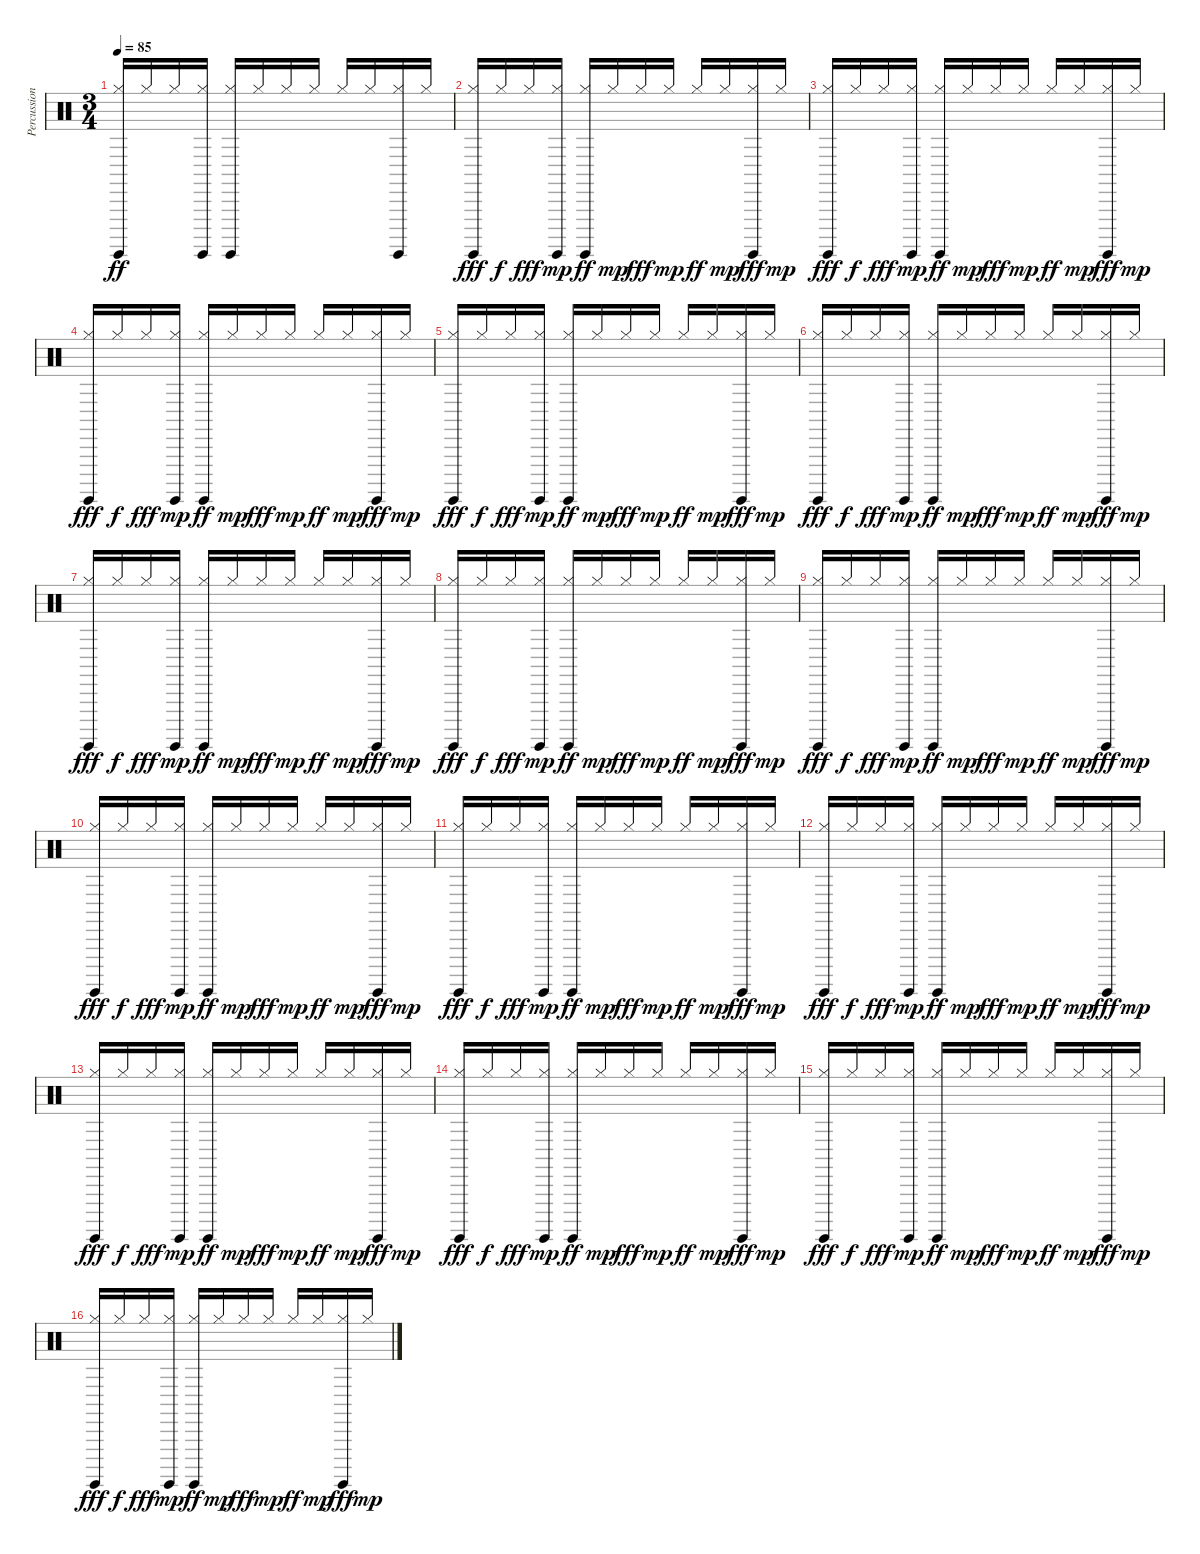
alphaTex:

\track ("Percussion" "Percussion") {instrument percussion}
\staff {score}
\articulation defaults
\ts (3 4)
\tempo 85
\clef neutral
\ks c
("Surdo (hit)" "Hi-Hat (closed)").16{dy ff} "Hi-Hat (closed)".16 "Hi-Hat (closed)".16 ("Surdo (hit)" "Hi-Hat (closed)").16 ("Surdo (hit)" "Hi-Hat (closed)").16 "Hi-Hat (closed)".16 "Hi-Hat (closed)".16 "Hi-Hat (closed)".16 "Hi-Hat (closed)".16 "Hi-Hat (closed)".16 ("Surdo (hit)" "Hi-Hat (closed)").16 "Hi-Hat (closed)".16 |
("Surdo (hit)" "Hi-Hat (closed)").16{dy fff volume 7} "Hi-Hat (closed)".16{dy f} "Hi-Hat (closed)".16{dy fff} ("Surdo (hit)" "Hi-Hat (closed)").16{dy mp} ("Surdo (hit)" "Hi-Hat (closed)").16{dy ff} "Hi-Hat (closed)".16{dy mp} "Hi-Hat (closed)".16{dy fff} "Hi-Hat (closed)".16{dy mp} "Hi-Hat (closed)".16{dy ff} "Hi-Hat (closed)".16{dy mp} ("Surdo (hit)" "Hi-Hat (closed)").16{dy fff} "Hi-Hat (closed)".16{dy mp} |
("Surdo (hit)" "Hi-Hat (closed)").16{dy fff} "Hi-Hat (closed)".16{dy f} "Hi-Hat (closed)".16{dy fff} ("Surdo (hit)" "Hi-Hat (closed)").16{dy mp} ("Surdo (hit)" "Hi-Hat (closed)").16{dy ff} "Hi-Hat (closed)".16{dy mp} "Hi-Hat (closed)".16{dy fff} "Hi-Hat (closed)".16{dy mp} "Hi-Hat (closed)".16{dy ff} "Hi-Hat (closed)".16{dy mp} ("Surdo (hit)" "Hi-Hat (closed)").16{dy fff} "Hi-Hat (closed)".16{dy mp} |
("Surdo (hit)" "Hi-Hat (closed)").16{dy fff} "Hi-Hat (closed)".16{dy f} "Hi-Hat (closed)".16{dy fff} ("Surdo (hit)" "Hi-Hat (closed)").16{dy mp} ("Surdo (hit)" "Hi-Hat (closed)").16{dy ff} "Hi-Hat (closed)".16{dy mp} "Hi-Hat (closed)".16{dy fff} "Hi-Hat (closed)".16{dy mp} "Hi-Hat (closed)".16{dy ff} "Hi-Hat (closed)".16{dy mp} ("Surdo (hit)" "Hi-Hat (closed)").16{dy fff} "Hi-Hat (closed)".16{dy mp} |
("Surdo (hit)" "Hi-Hat (closed)").16{dy fff} "Hi-Hat (closed)".16{dy f} "Hi-Hat (closed)".16{dy fff} ("Surdo (hit)" "Hi-Hat (closed)").16{dy mp} ("Surdo (hit)" "Hi-Hat (closed)").16{dy ff} "Hi-Hat (closed)".16{dy mp} "Hi-Hat (closed)".16{dy fff} "Hi-Hat (closed)".16{dy mp} "Hi-Hat (closed)".16{dy ff} "Hi-Hat (closed)".16{dy mp} ("Surdo (hit)" "Hi-Hat (closed)").16{dy fff} "Hi-Hat (closed)".16{dy mp} |
("Surdo (hit)" "Hi-Hat (closed)").16{dy fff volume 7} "Hi-Hat (closed)".16{dy f} "Hi-Hat (closed)".16{dy fff} ("Surdo (hit)" "Hi-Hat (closed)").16{dy mp} ("Surdo (hit)" "Hi-Hat (closed)").16{dy ff} "Hi-Hat (closed)".16{dy mp} "Hi-Hat (closed)".16{dy fff} "Hi-Hat (closed)".16{dy mp} "Hi-Hat (closed)".16{dy ff} "Hi-Hat (closed)".16{dy mp} ("Surdo (hit)" "Hi-Hat (closed)").16{dy fff} "Hi-Hat (closed)".16{dy mp} |
("Surdo (hit)" "Hi-Hat (closed)").16{dy fff} "Hi-Hat (closed)".16{dy f} "Hi-Hat (closed)".16{dy fff} ("Surdo (hit)" "Hi-Hat (closed)").16{dy mp} ("Surdo (hit)" "Hi-Hat (closed)").16{dy ff} "Hi-Hat (closed)".16{dy mp} "Hi-Hat (closed)".16{dy fff} "Hi-Hat (closed)".16{dy mp} "Hi-Hat (closed)".16{dy ff} "Hi-Hat (closed)".16{dy mp} ("Surdo (hit)" "Hi-Hat (closed)").16{dy fff} "Hi-Hat (closed)".16{dy mp} |
("Surdo (hit)" "Hi-Hat (closed)").16{dy fff} "Hi-Hat (closed)".16{dy f} "Hi-Hat (closed)".16{dy fff} ("Surdo (hit)" "Hi-Hat (closed)").16{dy mp} ("Surdo (hit)" "Hi-Hat (closed)").16{dy ff} "Hi-Hat (closed)".16{dy mp} "Hi-Hat (closed)".16{dy fff} "Hi-Hat (closed)".16{dy mp} "Hi-Hat (closed)".16{dy ff} "Hi-Hat (closed)".16{dy mp} ("Surdo (hit)" "Hi-Hat (closed)").16{dy fff} "Hi-Hat (closed)".16{dy mp} |
("Surdo (hit)" "Hi-Hat (closed)").16{dy fff} "Hi-Hat (closed)".16{dy f} "Hi-Hat (closed)".16{dy fff} ("Surdo (hit)" "Hi-Hat (closed)").16{dy mp} ("Surdo (hit)" "Hi-Hat (closed)").16{dy ff} "Hi-Hat (closed)".16{dy mp} "Hi-Hat (closed)".16{dy fff} "Hi-Hat (closed)".16{dy mp} "Hi-Hat (closed)".16{dy ff} "Hi-Hat (closed)".16{dy mp} ("Surdo (hit)" "Hi-Hat (closed)").16{dy fff} "Hi-Hat (closed)".16{dy mp} |
("Surdo (hit)" "Hi-Hat (closed)").16{dy fff volume 7} "Hi-Hat (closed)".16{dy f} "Hi-Hat (closed)".16{dy fff} ("Surdo (hit)" "Hi-Hat (closed)").16{dy mp} ("Surdo (hit)" "Hi-Hat (closed)").16{dy ff} "Hi-Hat (closed)".16{dy mp} "Hi-Hat (closed)".16{dy fff} "Hi-Hat (closed)".16{dy mp} "Hi-Hat (closed)".16{dy ff} "Hi-Hat (closed)".16{dy mp} ("Surdo (hit)" "Hi-Hat (closed)").16{dy fff} "Hi-Hat (closed)".16{dy mp} |
("Surdo (hit)" "Hi-Hat (closed)").16{dy fff} "Hi-Hat (closed)".16{dy f} "Hi-Hat (closed)".16{dy fff} ("Surdo (hit)" "Hi-Hat (closed)").16{dy mp} ("Surdo (hit)" "Hi-Hat (closed)").16{dy ff} "Hi-Hat (closed)".16{dy mp} "Hi-Hat (closed)".16{dy fff} "Hi-Hat (closed)".16{dy mp} "Hi-Hat (closed)".16{dy ff} "Hi-Hat (closed)".16{dy mp} ("Surdo (hit)" "Hi-Hat (closed)").16{dy fff} "Hi-Hat (closed)".16{dy mp} |
("Surdo (hit)" "Hi-Hat (closed)").16{dy fff} "Hi-Hat (closed)".16{dy f} "Hi-Hat (closed)".16{dy fff} ("Surdo (hit)" "Hi-Hat (closed)").16{dy mp} ("Surdo (hit)" "Hi-Hat (closed)").16{dy ff} "Hi-Hat (closed)".16{dy mp} "Hi-Hat (closed)".16{dy fff} "Hi-Hat (closed)".16{dy mp} "Hi-Hat (closed)".16{dy ff} "Hi-Hat (closed)".16{dy mp} ("Surdo (hit)" "Hi-Hat (closed)").16{dy fff} "Hi-Hat (closed)".16{dy mp} |
("Surdo (hit)" "Hi-Hat (closed)").16{dy fff} "Hi-Hat (closed)".16{dy f} "Hi-Hat (closed)".16{dy fff} ("Surdo (hit)" "Hi-Hat (closed)").16{dy mp} ("Surdo (hit)" "Hi-Hat (closed)").16{dy ff} "Hi-Hat (closed)".16{dy mp} "Hi-Hat (closed)".16{dy fff} "Hi-Hat (closed)".16{dy mp} "Hi-Hat (closed)".16{dy ff} "Hi-Hat (closed)".16{dy mp} ("Surdo (hit)" "Hi-Hat (closed)").16{dy fff} "Hi-Hat (closed)".16{dy mp} |
("Surdo (hit)" "Hi-Hat (closed)").16{dy fff volume 7} "Hi-Hat (closed)".16{dy f} "Hi-Hat (closed)".16{dy fff} ("Surdo (hit)" "Hi-Hat (closed)").16{dy mp} ("Surdo (hit)" "Hi-Hat (closed)").16{dy ff} "Hi-Hat (closed)".16{dy mp} "Hi-Hat (closed)".16{dy fff} "Hi-Hat (closed)".16{dy mp} "Hi-Hat (closed)".16{dy ff} "Hi-Hat (closed)".16{dy mp} ("Surdo (hit)" "Hi-Hat (closed)").16{dy fff} "Hi-Hat (closed)".16{dy mp} |
("Surdo (hit)" "Hi-Hat (closed)").16{dy fff} "Hi-Hat (closed)".16{dy f} "Hi-Hat (closed)".16{dy fff} ("Surdo (hit)" "Hi-Hat (closed)").16{dy mp} ("Surdo (hit)" "Hi-Hat (closed)").16{dy ff} "Hi-Hat (closed)".16{dy mp} "Hi-Hat (closed)".16{dy fff} "Hi-Hat (closed)".16{dy mp} "Hi-Hat (closed)".16{dy ff} "Hi-Hat (closed)".16{dy mp} ("Surdo (hit)" "Hi-Hat (closed)").16{dy fff} "Hi-Hat (closed)".16{dy mp} |
("Surdo (hit)" "Hi-Hat (closed)").16{dy fff} "Hi-Hat (closed)".16{dy f} "Hi-Hat (closed)".16{dy fff} ("Surdo (hit)" "Hi-Hat (closed)").16{dy mp} ("Surdo (hit)" "Hi-Hat (closed)").16{dy ff} "Hi-Hat (closed)".16{dy mp} "Hi-Hat (closed)".16{dy fff} "Hi-Hat (closed)".16{dy mp} "Hi-Hat (closed)".16{dy ff} "Hi-Hat (closed)".16{dy mp} ("Surdo (hit)" "Hi-Hat (closed)").16{dy fff} "Hi-Hat (closed)".16{dy mp}
